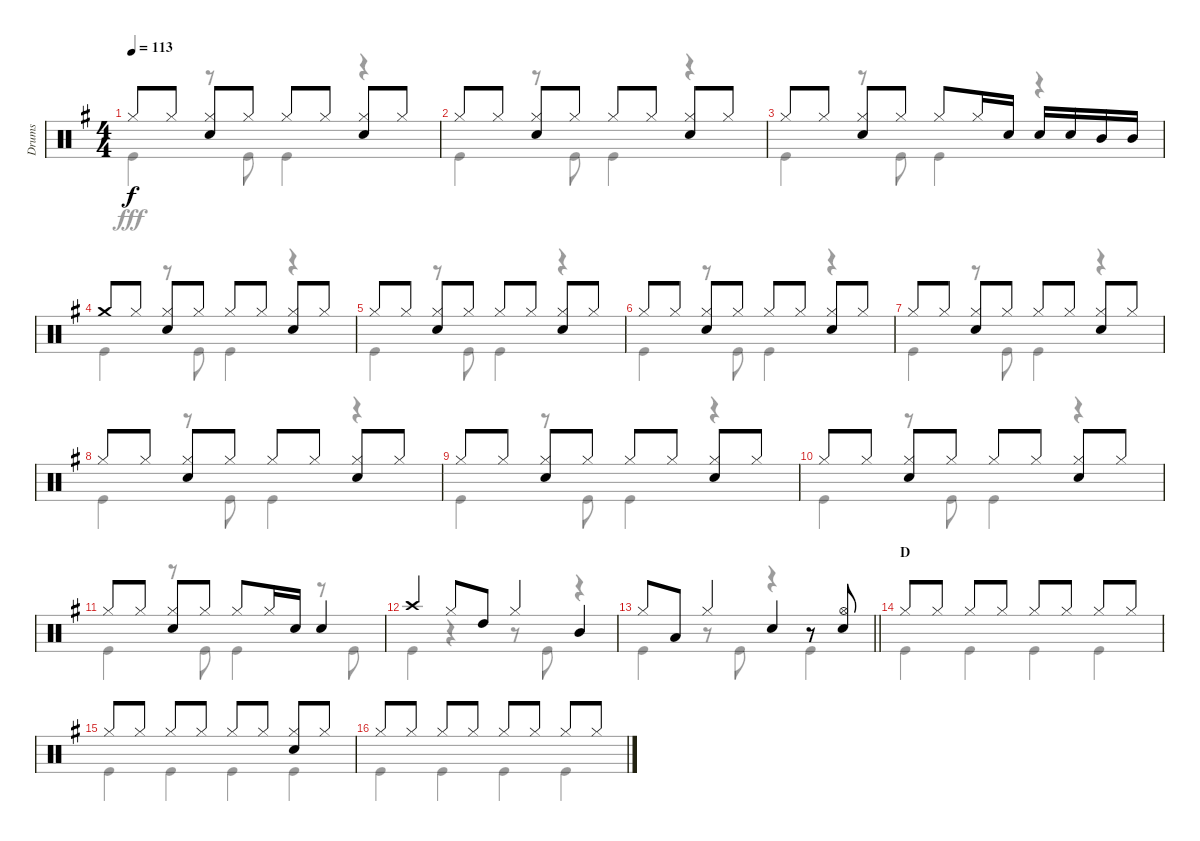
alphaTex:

\track ("Drums" "Drums") {instrument percussion}
\staff {score}
\articulation defaults
\voice
\ts (4 4)
\tempo 113
\clef neutral
\ks g "Hi-Hat (closed)".8{dy f} "Hi-Hat (closed)".8
("Hi-Hat (closed)" "Snare (hit) 2").8 "Hi-Hat (closed)".8 "Hi-Hat (closed)".8 "Hi-Hat (closed)".8 ("Hi-Hat (closed)" "Snare (hit) 2").8 "Hi-Hat (closed)".8 |
"Hi-Hat (closed)".8 "Hi-Hat (closed)".8 ("Hi-Hat (closed)" "Snare (hit) 2").8 "Hi-Hat (closed)".8 "Hi-Hat (closed)".8 "Hi-Hat (closed)".8 ("Hi-Hat (closed)" "Snare (hit) 2").8 "Hi-Hat (closed)".8 |
"Hi-Hat (closed)".8 "Hi-Hat (closed)".8 ("Hi-Hat (closed)" "Snare (hit) 2").8 "Hi-Hat (closed)".8 "Hi-Hat (closed)".8 "Hi-Hat (closed)".16 "Snare (hit) 2".16 "Snare (hit) 2".16 "Snare (hit) 2".16 "Mid Tom (hit)".16 "Mid Tom (hit)".16 |
"Crash medium (hit)".8 "Hi-Hat (closed)".8 ("Hi-Hat (closed)" "Snare (hit) 2").8 "Hi-Hat (closed)".8 "Hi-Hat (closed)".8 "Hi-Hat (closed)".8 ("Hi-Hat (closed)" "Snare (hit) 2").8 "Hi-Hat (closed)".8 |
"Hi-Hat (closed)".8 "Hi-Hat (closed)".8 ("Hi-Hat (closed)" "Snare (hit) 2").8 "Hi-Hat (closed)".8 "Hi-Hat (closed)".8 "Hi-Hat (closed)".8 ("Hi-Hat (closed)" "Snare (hit) 2").8 "Hi-Hat (closed)".8 |
"Hi-Hat (closed)".8 "Hi-Hat (closed)".8 ("Hi-Hat (closed)" "Snare (hit) 2").8 "Hi-Hat (closed)".8 "Hi-Hat (closed)".8 "Hi-Hat (closed)".8 ("Hi-Hat (closed)" "Snare (hit) 2").8 "Hi-Hat (closed)".8 |
"Hi-Hat (closed)".8 "Hi-Hat (closed)".8 ("Hi-Hat (closed)" "Snare (hit) 2").8 "Hi-Hat (closed)".8 "Hi-Hat (closed)".8 "Hi-Hat (closed)".8 ("Hi-Hat (closed)" "Snare (hit) 2").8 "Hi-Hat (closed)".8 |
"Hi-Hat (closed)".8 "Hi-Hat (closed)".8 ("Hi-Hat (closed)" "Snare (hit) 2").8 "Hi-Hat (closed)".8 "Hi-Hat (closed)".8 "Hi-Hat (closed)".8 ("Hi-Hat (closed)" "Snare (hit) 2").8 "Hi-Hat (closed)".8 |
"Hi-Hat (closed)".8 "Hi-Hat (closed)".8 ("Hi-Hat (closed)" "Snare (hit) 2").8 "Hi-Hat (closed)".8 "Hi-Hat (closed)".8 "Hi-Hat (closed)".8 ("Hi-Hat (closed)" "Snare (hit) 2").8 "Hi-Hat (closed)".8 |
"Hi-Hat (closed)".8 "Hi-Hat (closed)".8 ("Hi-Hat (closed)" "Snare (hit) 2").8 "Hi-Hat (closed)".8 "Hi-Hat (closed)".8 "Hi-Hat (closed)".8 ("Hi-Hat (closed)" "Snare (hit) 2").8 "Hi-Hat (closed)".8 |
"Hi-Hat (closed)".8 "Hi-Hat (closed)".8 ("Hi-Hat (closed)" "Snare (hit) 2").8 "Hi-Hat (closed)".8 "Hi-Hat (closed)".8 "Hi-Hat (closed)".16 "Snare (hit) 2".16 "Snare (hit) 2".4 |
"Crash high (hit)".4 "Hi-Hat (closed)".8 "High Tom (hit)".8 "Hi-Hat (closed)".4 "Mid Tom (hit)".4 |
\barLineRight lightlight "Hi-Hat (closed)".8 "Low Tom (hit)".8 "Hi-Hat (closed)".4 "Snare (hit) 2".4
r.8 ("Hi-Hat (open)" "Snare (hit) 2").8 |
\section ("" "D")
"Hi-Hat (closed)".8 "Hi-Hat (closed)".8 "Hi-Hat (closed)".8 "Hi-Hat (closed)".8 "Hi-Hat (closed)".8 "Hi-Hat (closed)".8 "Hi-Hat (closed)".8 "Hi-Hat (closed)".8 |
"Hi-Hat (closed)".8 "Hi-Hat (closed)".8 "Hi-Hat (closed)".8 "Hi-Hat (closed)".8 "Hi-Hat (closed)".8 "Hi-Hat (closed)".8 ("Hi-Hat (closed)" "Snare (hit) 2").8 "Hi-Hat (closed)".8 |
"Hi-Hat (closed)".8 "Hi-Hat (closed)".8 "Hi-Hat (closed)".8 "Hi-Hat (closed)".8 "Hi-Hat (closed)".8 "Hi-Hat (closed)".8 "Hi-Hat (closed)".8 "Hi-Hat (closed)".8
\voice
\clef neutral
\ottava regular
\simile none
\ks g "Kick (hit)".4{dy fff}
r.8 "Kick (hit)".8 "Kick (hit)".4 r.4 |
"Kick (hit)".4 r.8 "Kick (hit)".8 "Kick (hit)".4 r.4 |
"Kick (hit)".4 r.8 "Kick (hit)".8 "Kick (hit)".4 r.4 |
"Kick (hit)".4 r.8 "Kick (hit)".8 "Kick (hit)".4 r.4 |
"Kick (hit)".4 r.8 "Kick (hit)".8 "Kick (hit)".4 r.4 |
"Kick (hit)".4 r.8 "Kick (hit)".8 "Kick (hit)".4 r.4 |
"Kick (hit)".4 r.8 "Kick (hit)".8 "Kick (hit)".4 r.4 |
"Kick (hit)".4 r.8 "Kick (hit)".8 "Kick (hit)".4 r.4 |
"Kick (hit)".4 r.8 "Kick (hit)".8 "Kick (hit)".4 r.4 |
"Kick (hit)".4 r.8 "Kick (hit)".8 "Kick (hit)".4 r.4 |
"Kick (hit)".4 r.8 "Kick (hit)".8 "Kick (hit)".4 r.8 "Kick (hit)".8 |
"Kick (hit)".4 r.4 r.8 "Kick (hit)".8 r.4 |
\barLineRight lightlight "Kick (hit)".4
r.8 "Kick (hit)".8 r.4 "Kick (hit)".4 |
"Kick (hit)".4 "Kick (hit)".4 "Kick (hit)".4 "Kick (hit)".4 |
"Kick (hit)".4 "Kick (hit)".4 "Kick (hit)".4 "Kick (hit)".4 |
"Kick (hit)".4 "Kick (hit)".4 "Kick (hit)".4 "Kick (hit)".4
